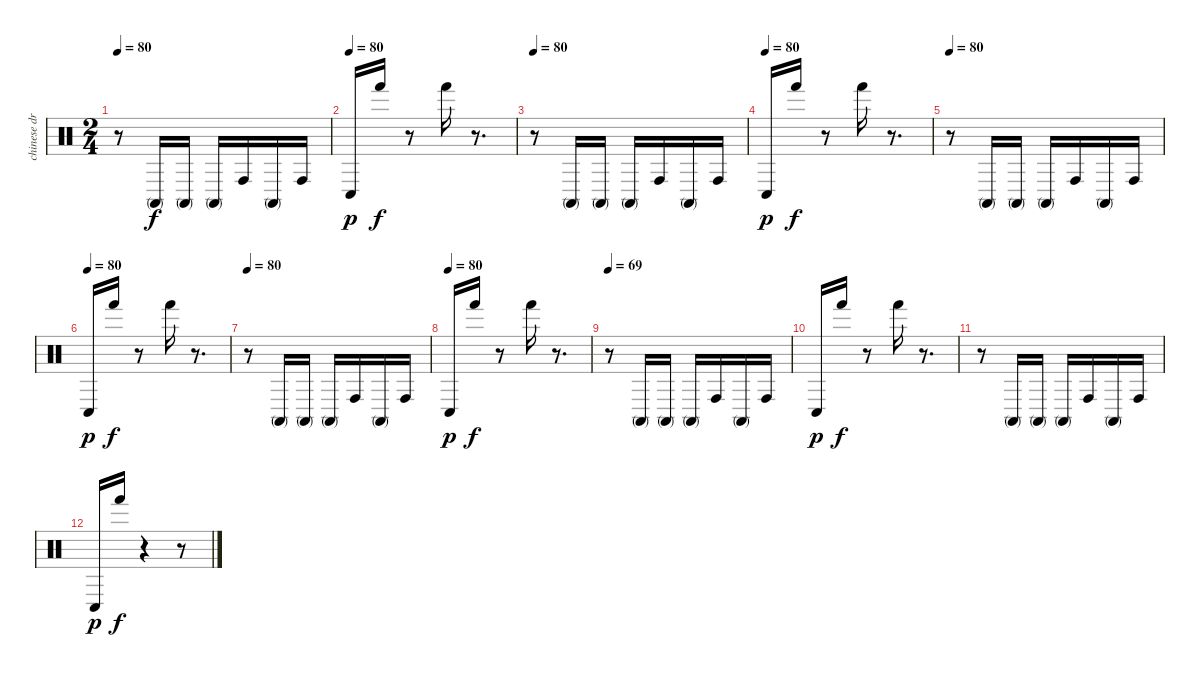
\track ("chinese drums" "chinese dr") {instrument percussion}
\staff {score}
\articulation defaults
\ts (2 4)
\tempo 80
\clef neutral
\ks c
r.8{dy f} "Conga high (mute)".16 "Conga high (mute)".16 "Conga high (mute)".16 "Conga high (hit)".16 "Conga high (mute)".16 "Conga high (hit)".16 |
\tempo (80)
"Conga low (hit)".16{dy p} "Hand (hit)".16{dy f} r.8 "Hand (hit)".16 r.8{d} |
\tempo 80
r.8 "Conga high (mute)".16 "Conga high (mute)".16 "Conga high (mute)".16 "Conga high (hit)".16 "Conga high (mute)".16 "Conga high (hit)".16 |
\tempo (80)
"Conga low (hit)".16{dy p} "Hand (hit)".16{dy f} r.8 "Hand (hit)".16 r.8{d} |
\tempo 80
r.8 "Conga high (mute)".16 "Conga high (mute)".16 "Conga high (mute)".16 "Conga high (hit)".16 "Conga high (mute)".16 "Conga high (hit)".16 |
\tempo (80)
"Conga low (hit)".16{dy p} "Hand (hit)".16{dy f} r.8 "Hand (hit)".16 r.8{d} |
\tempo 80
r.8 "Conga high (mute)".16 "Conga high (mute)".16 "Conga high (mute)".16 "Conga high (hit)".16 "Conga high (mute)".16 "Conga high (hit)".16 |
\tempo (80)
"Conga low (hit)".16{dy p} "Hand (hit)".16{dy f} r.8 "Hand (hit)".16 r.8{d} |
\tempo 69
r.8 "Conga high (mute)".16 "Conga high (mute)".16 "Conga high (mute)".16 "Conga high (hit)".16 "Conga high (mute)".16 "Conga high (hit)".16 |
"Conga low (hit)".16{dy p} "Hand (hit)".16{dy f} r.8 "Hand (hit)".16 r.8{d} |
r.8 "Conga high (mute)".16 "Conga high (mute)".16 "Conga high (mute)".16 "Conga high (hit)".16 "Conga high (mute)".16 "Conga high (hit)".16 |
"Conga low (hit)".16{dy p} "Hand (hit)".16{dy f} r.4 r.8
